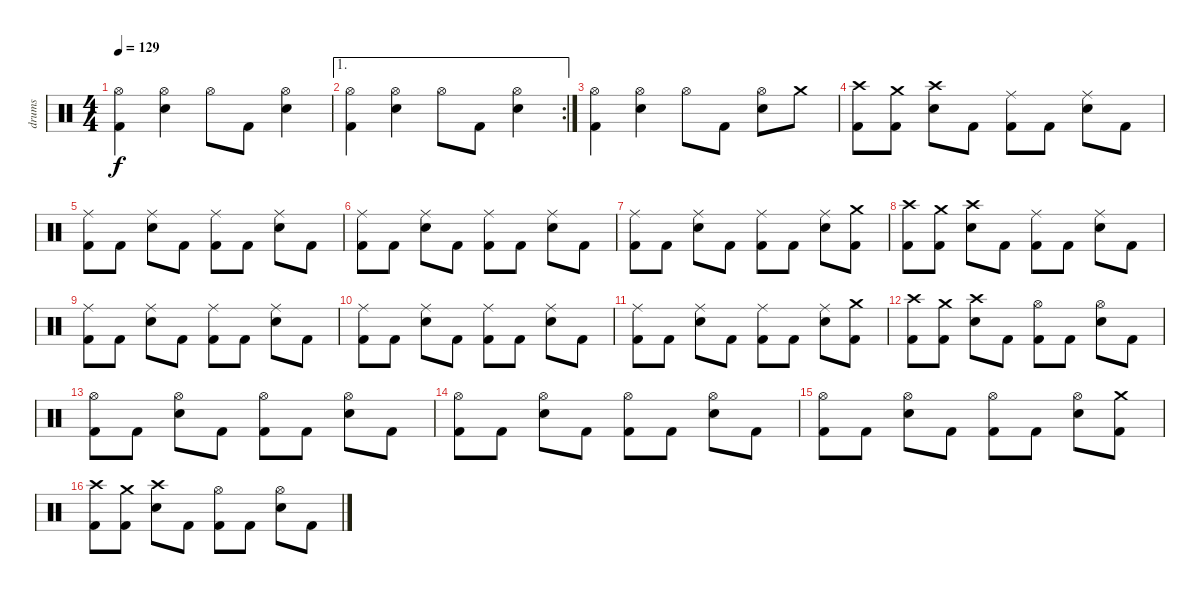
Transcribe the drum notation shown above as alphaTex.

\track ("drums" "drums") {instrument percussion}
\staff {score}
\articulation defaults
\ts (4 4)
\tempo 129
\clef neutral
\ks c
("Kick (hit) 2" "Hi-Hat (open)").4{dy f} ("Hi-Hat (open)" "Snare (hit) 2").4 "Hi-Hat (open)".8 "Kick (hit) 2".8 ("Hi-Hat (open)" "Snare (hit) 2").4 |
\ae 1
\rc 2
("Kick (hit) 2" "Hi-Hat (open)").4 ("Hi-Hat (open)" "Snare (hit) 2").4 "Hi-Hat (open)".8 "Kick (hit) 2".8 ("Hi-Hat (open)" "Snare (hit) 2").4 |
("Kick (hit) 2" "Hi-Hat (open)").4 ("Hi-Hat (open)" "Snare (hit) 2").4 "Hi-Hat (open)".8 "Kick (hit) 2".8 ("Hi-Hat (open)" "Snare (hit) 2").8 "Crash medium (hit)".8 |
("Kick (hit) 2" "Crash high (hit)").8 ("Kick (hit) 2" "Crash medium (hit)").8 ("Crash high (hit)" "Snare (hit) 2").8 "Kick (hit) 2".8 ("Kick (hit) 2" "Ride (middle)").8 "Kick (hit) 2".8 ("Ride (middle)" "Snare (hit) 2").8 "Kick (hit) 2".8 |
("Kick (hit) 2" "Ride (middle)").8 "Kick (hit) 2".8 ("Ride (middle)" "Snare (hit) 2").8 "Kick (hit) 2".8 ("Kick (hit) 2" "Ride (middle)").8 "Kick (hit) 2".8 ("Ride (middle)" "Snare (hit) 2").8 "Kick (hit) 2".8 |
("Kick (hit) 2" "Ride (middle)").8 "Kick (hit) 2".8 ("Ride (middle)" "Snare (hit) 2").8 "Kick (hit) 2".8 ("Kick (hit) 2" "Ride (middle)").8 "Kick (hit) 2".8 ("Ride (middle)" "Snare (hit) 2").8 "Kick (hit) 2".8 |
("Kick (hit) 2" "Ride (middle)").8 "Kick (hit) 2".8 ("Ride (middle)" "Snare (hit) 2").8 "Kick (hit) 2".8 ("Kick (hit) 2" "Ride (middle)").8 "Kick (hit) 2".8 ("Ride (middle)" "Snare (hit) 2").8 ("Kick (hit) 2" "Crash medium (hit)").8 |
("Kick (hit) 2" "Crash high (hit)").8 ("Kick (hit) 2" "Crash medium (hit)").8 ("Crash high (hit)" "Snare (hit) 2").8 "Kick (hit) 2".8 ("Kick (hit) 2" "Ride (middle)").8 "Kick (hit) 2".8 ("Ride (middle)" "Snare (hit) 2").8 "Kick (hit) 2".8 |
("Kick (hit) 2" "Ride (middle)").8 "Kick (hit) 2".8 ("Ride (middle)" "Snare (hit) 2").8 "Kick (hit) 2".8 ("Kick (hit) 2" "Ride (middle)").8 "Kick (hit) 2".8 ("Ride (middle)" "Snare (hit) 2").8 "Kick (hit) 2".8 |
("Kick (hit) 2" "Ride (middle)").8 "Kick (hit) 2".8 ("Ride (middle)" "Snare (hit) 2").8 "Kick (hit) 2".8 ("Kick (hit) 2" "Ride (middle)").8 "Kick (hit) 2".8 ("Ride (middle)" "Snare (hit) 2").8 "Kick (hit) 2".8 |
("Kick (hit) 2" "Ride (middle)").8 "Kick (hit) 2".8 ("Ride (middle)" "Snare (hit) 2").8 "Kick (hit) 2".8 ("Kick (hit) 2" "Ride (middle)").8 "Kick (hit) 2".8 ("Ride (middle)" "Snare (hit) 2").8 ("Kick (hit) 2" "Crash medium (hit)").8 |
("Kick (hit) 2" "Crash high (hit)").8 ("Kick (hit) 2" "Crash medium (hit)").8 ("Crash high (hit)" "Snare (hit) 2").8 "Kick (hit) 2".8 ("Kick (hit) 2" "Hi-Hat (open)").8 "Kick (hit) 2".8 ("Hi-Hat (open)" "Snare (hit) 2").8 "Kick (hit) 2".8 |
("Kick (hit) 2" "Hi-Hat (open)").8 "Kick (hit) 2".8 ("Hi-Hat (open)" "Snare (hit) 2").8 "Kick (hit) 2".8 ("Kick (hit) 2" "Hi-Hat (open)").8 "Kick (hit) 2".8 ("Hi-Hat (open)" "Snare (hit) 2").8 "Kick (hit) 2".8 |
("Kick (hit) 2" "Hi-Hat (open)").8 "Kick (hit) 2".8 ("Hi-Hat (open)" "Snare (hit) 2").8 "Kick (hit) 2".8 ("Kick (hit) 2" "Hi-Hat (open)").8 "Kick (hit) 2".8 ("Hi-Hat (open)" "Snare (hit) 2").8 "Kick (hit) 2".8 |
("Kick (hit) 2" "Hi-Hat (open)").8 "Kick (hit) 2".8 ("Hi-Hat (open)" "Snare (hit) 2").8 "Kick (hit) 2".8 ("Kick (hit) 2" "Hi-Hat (open)").8 "Kick (hit) 2".8 ("Hi-Hat (open)" "Snare (hit) 2").8 ("Kick (hit) 2" "Crash medium (hit)").8 |
("Kick (hit) 2" "Crash high (hit)").8 ("Kick (hit) 2" "Crash medium (hit)").8 ("Crash high (hit)" "Snare (hit) 2").8 "Kick (hit) 2".8 ("Kick (hit) 2" "Hi-Hat (open)").8 "Kick (hit) 2".8 ("Hi-Hat (open)" "Snare (hit) 2").8 "Kick (hit) 2".8
